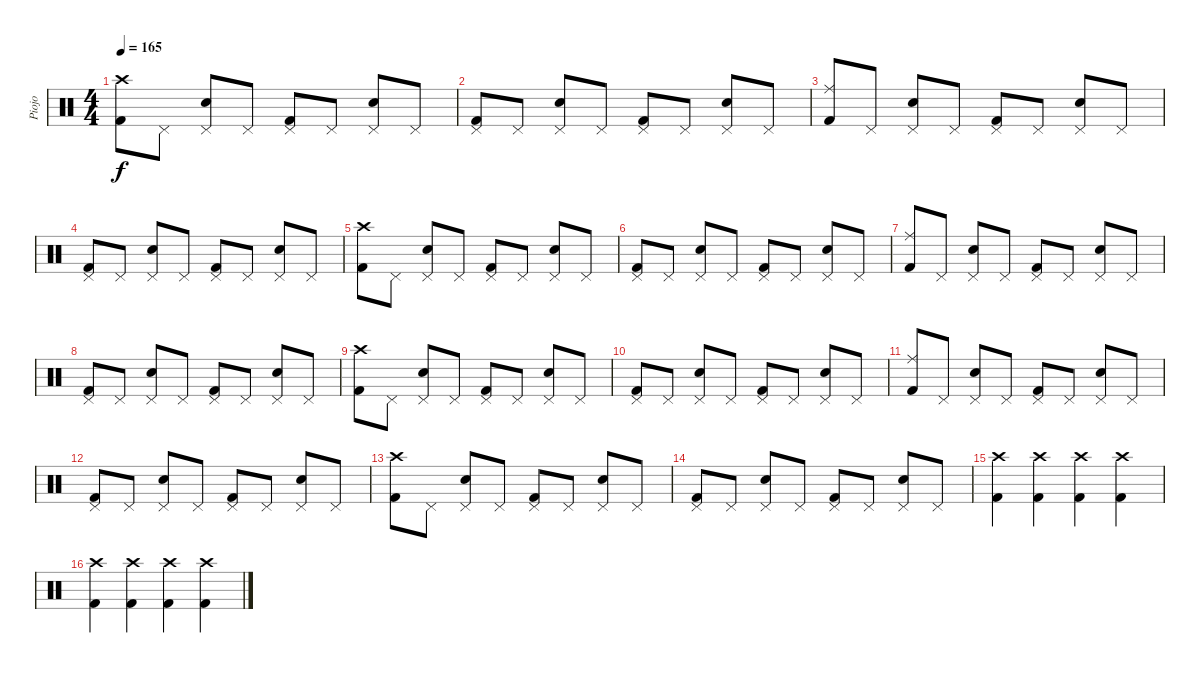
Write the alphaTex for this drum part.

\track ("Piojo" "Piojo") {instrument percussion}
\staff {score}
\articulation defaults
\ts (4 4)
\tempo 165
\clef neutral
\ks c
("Crash high (hit)" "Kick (hit) 2").8{dy f} "Pedal Hi-Hat (hit)".8 ("Pedal Hi-Hat (hit)" "Electric Snare (hit)").8 "Pedal Hi-Hat (hit)".8 ("Pedal Hi-Hat (hit)" "Kick (hit) 2").8 "Pedal Hi-Hat (hit)".8 ("Pedal Hi-Hat (hit)" "Electric Snare (hit)").8 "Pedal Hi-Hat (hit)".8 |
("Pedal Hi-Hat (hit)" "Kick (hit) 2").8 "Pedal Hi-Hat (hit)".8 ("Pedal Hi-Hat (hit)" "Electric Snare (hit)").8 "Pedal Hi-Hat (hit)".8 ("Pedal Hi-Hat (hit)" "Kick (hit) 2").8 "Pedal Hi-Hat (hit)".8 ("Pedal Hi-Hat (hit)" "Electric Snare (hit)").8 "Pedal Hi-Hat (hit)".8 |
("Ride (middle)" "Kick (hit) 2").8 "Pedal Hi-Hat (hit)".8 ("Pedal Hi-Hat (hit)" "Electric Snare (hit)").8 "Pedal Hi-Hat (hit)".8 ("Pedal Hi-Hat (hit)" "Kick (hit) 2").8 "Pedal Hi-Hat (hit)".8 ("Pedal Hi-Hat (hit)" "Electric Snare (hit)").8 "Pedal Hi-Hat (hit)".8 |
("Pedal Hi-Hat (hit)" "Kick (hit) 2").8 "Pedal Hi-Hat (hit)".8 ("Pedal Hi-Hat (hit)" "Electric Snare (hit)").8 "Pedal Hi-Hat (hit)".8 ("Pedal Hi-Hat (hit)" "Kick (hit) 2").8 "Pedal Hi-Hat (hit)".8 ("Pedal Hi-Hat (hit)" "Electric Snare (hit)").8 "Pedal Hi-Hat (hit)".8 |
("Crash high (hit)" "Kick (hit) 2").8 "Pedal Hi-Hat (hit)".8 ("Pedal Hi-Hat (hit)" "Electric Snare (hit)").8 "Pedal Hi-Hat (hit)".8 ("Pedal Hi-Hat (hit)" "Kick (hit) 2").8 "Pedal Hi-Hat (hit)".8 ("Pedal Hi-Hat (hit)" "Electric Snare (hit)").8 "Pedal Hi-Hat (hit)".8 |
("Pedal Hi-Hat (hit)" "Kick (hit) 2").8 "Pedal Hi-Hat (hit)".8 ("Pedal Hi-Hat (hit)" "Electric Snare (hit)").8 "Pedal Hi-Hat (hit)".8 ("Pedal Hi-Hat (hit)" "Kick (hit) 2").8 "Pedal Hi-Hat (hit)".8 ("Pedal Hi-Hat (hit)" "Electric Snare (hit)").8 "Pedal Hi-Hat (hit)".8 |
("Ride (middle)" "Kick (hit) 2").8 "Pedal Hi-Hat (hit)".8 ("Pedal Hi-Hat (hit)" "Electric Snare (hit)").8 "Pedal Hi-Hat (hit)".8 ("Pedal Hi-Hat (hit)" "Kick (hit) 2").8 "Pedal Hi-Hat (hit)".8 ("Pedal Hi-Hat (hit)" "Electric Snare (hit)").8 "Pedal Hi-Hat (hit)".8 |
("Pedal Hi-Hat (hit)" "Kick (hit) 2").8 "Pedal Hi-Hat (hit)".8 ("Pedal Hi-Hat (hit)" "Electric Snare (hit)").8 "Pedal Hi-Hat (hit)".8 ("Pedal Hi-Hat (hit)" "Kick (hit) 2").8 "Pedal Hi-Hat (hit)".8 ("Pedal Hi-Hat (hit)" "Electric Snare (hit)").8 "Pedal Hi-Hat (hit)".8 |
("Crash high (hit)" "Kick (hit) 2").8 "Pedal Hi-Hat (hit)".8 ("Pedal Hi-Hat (hit)" "Electric Snare (hit)").8 "Pedal Hi-Hat (hit)".8 ("Pedal Hi-Hat (hit)" "Kick (hit) 2").8 "Pedal Hi-Hat (hit)".8 ("Pedal Hi-Hat (hit)" "Electric Snare (hit)").8 "Pedal Hi-Hat (hit)".8 |
("Pedal Hi-Hat (hit)" "Kick (hit) 2").8 "Pedal Hi-Hat (hit)".8 ("Pedal Hi-Hat (hit)" "Electric Snare (hit)").8 "Pedal Hi-Hat (hit)".8 ("Pedal Hi-Hat (hit)" "Kick (hit) 2").8 "Pedal Hi-Hat (hit)".8 ("Pedal Hi-Hat (hit)" "Electric Snare (hit)").8 "Pedal Hi-Hat (hit)".8 |
("Ride (middle)" "Kick (hit) 2").8 "Pedal Hi-Hat (hit)".8 ("Pedal Hi-Hat (hit)" "Electric Snare (hit)").8 "Pedal Hi-Hat (hit)".8 ("Pedal Hi-Hat (hit)" "Kick (hit) 2").8 "Pedal Hi-Hat (hit)".8 ("Pedal Hi-Hat (hit)" "Electric Snare (hit)").8 "Pedal Hi-Hat (hit)".8 |
("Pedal Hi-Hat (hit)" "Kick (hit) 2").8 "Pedal Hi-Hat (hit)".8 ("Pedal Hi-Hat (hit)" "Electric Snare (hit)").8 "Pedal Hi-Hat (hit)".8 ("Pedal Hi-Hat (hit)" "Kick (hit) 2").8 "Pedal Hi-Hat (hit)".8 ("Pedal Hi-Hat (hit)" "Electric Snare (hit)").8 "Pedal Hi-Hat (hit)".8 |
("Crash high (hit)" "Kick (hit) 2").8 "Pedal Hi-Hat (hit)".8 ("Pedal Hi-Hat (hit)" "Electric Snare (hit)").8 "Pedal Hi-Hat (hit)".8 ("Pedal Hi-Hat (hit)" "Kick (hit) 2").8 "Pedal Hi-Hat (hit)".8 ("Pedal Hi-Hat (hit)" "Electric Snare (hit)").8 "Pedal Hi-Hat (hit)".8 |
("Pedal Hi-Hat (hit)" "Kick (hit) 2").8 "Pedal Hi-Hat (hit)".8 ("Pedal Hi-Hat (hit)" "Electric Snare (hit)").8 "Pedal Hi-Hat (hit)".8 ("Pedal Hi-Hat (hit)" "Kick (hit) 2").8 "Pedal Hi-Hat (hit)".8 ("Pedal Hi-Hat (hit)" "Electric Snare (hit)").8 "Pedal Hi-Hat (hit)".8 |
("Crash high (hit)" "Kick (hit) 2").4{balance 0} ("Crash high (hit)" "Kick (hit) 2").4{balance 16} ("Crash high (hit)" "Kick (hit) 2").4{balance 0} ("Crash high (hit)" "Kick (hit) 2").4{balance 16} |
("Crash high (hit)" "Kick (hit) 2").4{balance 0} ("Crash high (hit)" "Kick (hit) 2").4{balance 16} ("Crash high (hit)" "Kick (hit) 2").4{balance 0} ("Crash high (hit)" "Kick (hit) 2").4{balance 16}
